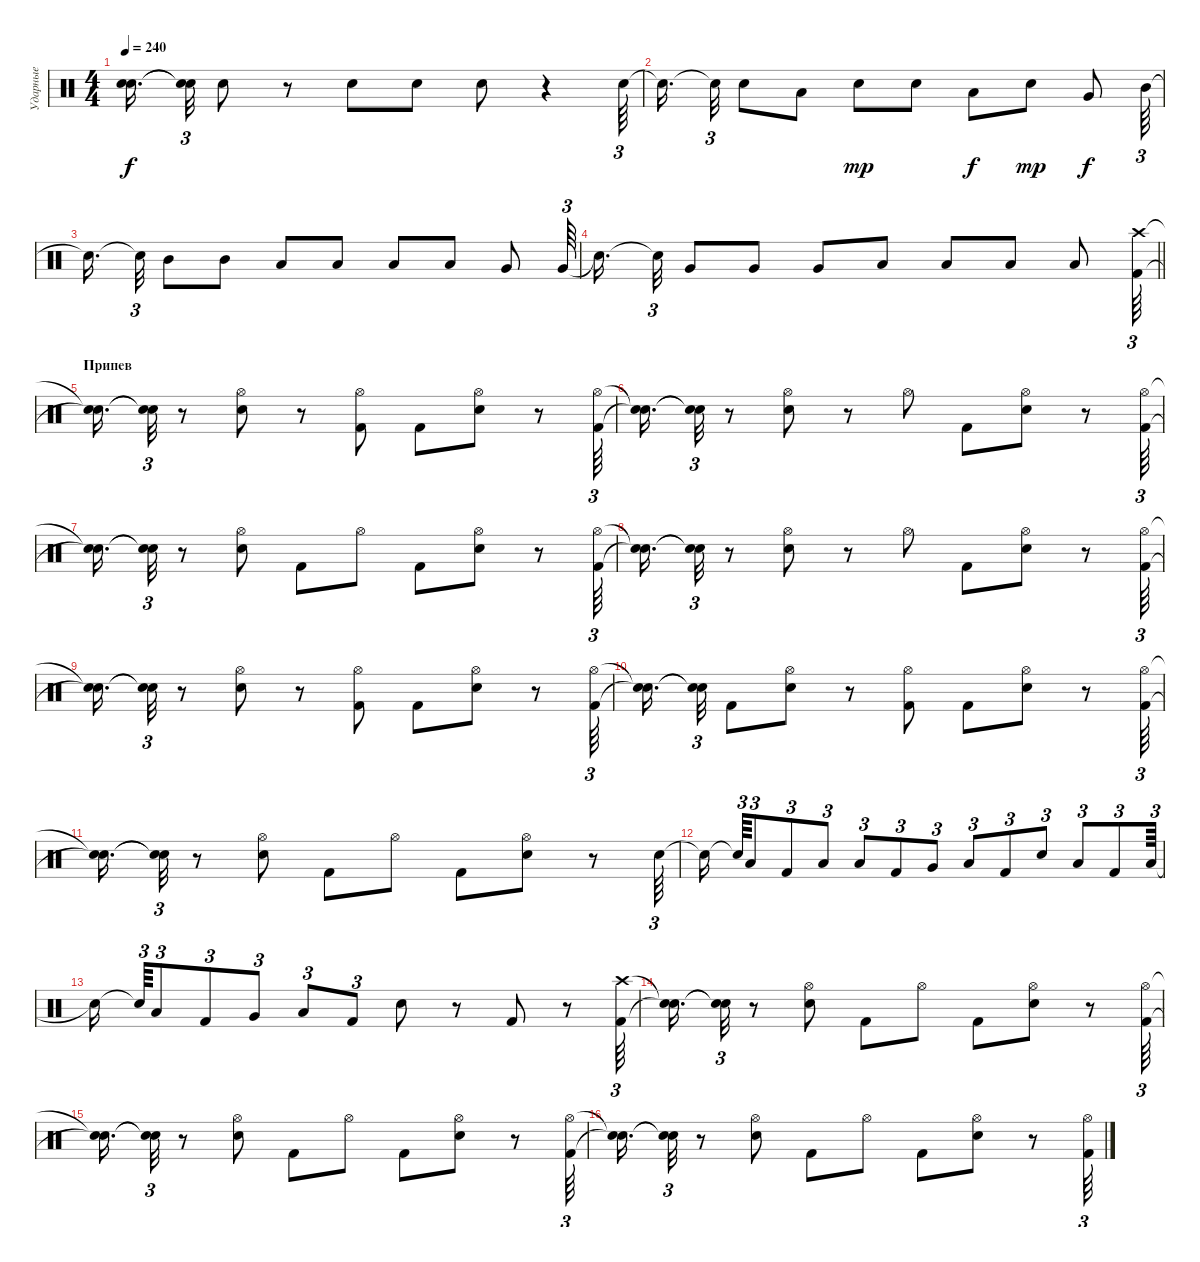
\track ("Ударные" "Ударные") {instrument percussion}
\staff {score}
\articulation defaults
\ts (4 4)
\tempo 240
\clef neutral
\ks c
("Snare (hit)"{t} "Snare (hit)"{t}).16{d dy f} ("Snare (hit)"{t} "Snare (hit)"{t}).32{tu (3 2)} "Snare (hit) 2".8 r.8 "Snare (hit) 2".8 "Snare (hit) 2".8 "Snare (hit) 2".8 r.4 "Snare (hit) 2".64{tu (3 2)} |
"Snare (hit)"{t}.16{d} "Snare (hit)"{t}.32{tu (3 2)} "Snare (hit) 2".8 "Low Tom (hit)".8 "Snare (hit) 2".8{dy mp} "Snare (hit) 2".8 "Low Tom (hit)".8{dy f} "Snare (hit) 2".8{dy mp} "Very Low Tom (hit)".8{dy f} "Mid Tom (hit)".64{tu (3 2)} |
"Snare (hit)"{t}.16{d} "Snare (hit)"{t}.32{tu (3 2)} "Mid Tom (hit)".8 "Mid Tom (hit)".8 "Low Tom (hit)".8 "Low Tom (hit)".8 "Low Tom (hit)".8 "Low Tom (hit)".8 "Very Low Tom (hit)".8 "Very Low Tom (hit)".64{tu (3 2)} |
\barLineRight lightlight "Snare (hit)"{t}.16{d} "Snare (hit)"{t}.32{tu (3 2)} "Very Low Tom (hit)".8 "Very Low Tom (hit)".8 "Very Low Tom (hit)".8 "Low Floor Tom (hit)".8 "Low Floor Tom (hit)".8 "Low Floor Tom (hit)".8 "Low Floor Tom (hit)".8
("Kick (hit) 2" "Crash high (hit)").64{tu (3 2)} |
\section ("" "Припев")
("Snare (hit)"{t} "Snare (hit)"{t}).16{d} ("Snare (hit)"{t} "Snare (hit)"{t}).32{tu (3 2)} r.8 ("Hi-Hat (open)" "Snare (hit) 2").8 r.8 ("Hi-Hat (open)" "Kick (hit) 2").8 "Kick (hit) 2".8 ("Snare (hit) 2" "Hi-Hat (open)").8 r.8 ("Hi-Hat (open)" "Kick (hit) 2").64{tu (3 2)} |
("Snare (hit)"{t} "Snare (hit)"{t}).16{d} ("Snare (hit)"{t} "Snare (hit)"{t}).32{tu (3 2)} r.8 ("Hi-Hat (open)" "Snare (hit) 2").8 r.8 "Hi-Hat (open)".8 "Kick (hit) 2".8 ("Hi-Hat (open)" "Snare (hit) 2").8 r.8 ("Kick (hit) 2" "Hi-Hat (open)").64{tu (3 2)} |
("Snare (hit)"{t} "Snare (hit)"{t}).16{d} ("Snare (hit)"{t} "Snare (hit)"{t}).32{tu (3 2)} r.8 ("Snare (hit) 2" "Hi-Hat (open)").8 "Kick (hit) 2".8 "Hi-Hat (open)".8 "Kick (hit) 2".8 ("Snare (hit) 2" "Hi-Hat (open)").8 r.8 ("Hi-Hat (open)" "Kick (hit) 2").64{tu (3 2)} |
("Snare (hit)"{t} "Snare (hit)"{t}).16{d} ("Snare (hit)"{t} "Snare (hit)"{t}).32{tu (3 2)} r.8 ("Hi-Hat (open)" "Snare (hit) 2").8 r.8 "Hi-Hat (open)".8 "Kick (hit) 2".8 ("Hi-Hat (open)" "Snare (hit) 2").8 r.8 ("Hi-Hat (open)" "Kick (hit) 2").64{tu (3 2)} |
("Snare (hit)"{t} "Snare (hit)"{t}).16{d} ("Snare (hit)"{t} "Snare (hit)"{t}).32{tu (3 2)} r.8 ("Hi-Hat (open)" "Snare (hit) 2").8 r.8 ("Kick (hit) 2" "Hi-Hat (open)").8 "Kick (hit) 2".8 ("Snare (hit) 2" "Hi-Hat (open)").8 r.8 ("Kick (hit) 2" "Hi-Hat (open)").64{tu (3 2)} |
("Snare (hit)"{t} "Snare (hit)"{t}).16{d} ("Snare (hit)"{t} "Snare (hit)"{t}).32{tu (3 2)} "Kick (hit) 2".8 ("Snare (hit) 2" "Hi-Hat (open)").8 r.8 ("Kick (hit) 2" "Hi-Hat (open)").8 "Kick (hit) 2".8 ("Snare (hit) 2" "Hi-Hat (open)").8 r.8 ("Kick (hit) 2" "Hi-Hat (open)").64{tu (3 2)} |
("Snare (hit)"{t} "Snare (hit)"{t}).16{d} ("Snare (hit)"{t} "Snare (hit)"{t}).32{tu (3 2)} r.8 ("Hi-Hat (open)" "Snare (hit) 2").8 "Kick (hit) 2".8 "Hi-Hat (open)".8 "Kick (hit) 2".8 ("Hi-Hat (open)" "Snare (hit) 2").8 r.8 "Snare (hit) 2".64{tu (3 2)} |
"Snare (hit)"{t}.16 "Snare (hit)"{t}.64{tu (3 2)} "Low Floor Tom (hit)".8{tu (3 2)} "Kick (hit) 2".8{tu (3 2)} "Low Tom (hit)".8{tu (3 2)} "Low Floor Tom (hit)".8{tu (3 2)} "Kick (hit) 2".8{tu (3 2)} "Very Low Tom (hit)".8{tu (3 2)} "Low Floor Tom (hit)".8{tu (3 2)} "Kick (hit) 2".8{tu (3 2)} "Snare (hit) 2".8{tu (3 2)} "Low Floor Tom (hit)".8{tu (3 2)} "Kick (hit) 2".8{tu (3 2)} "Low Tom (hit)".64{tu (3 2)} |
"Snare (hit)"{t}.16 "Snare (hit)"{t}.64{tu (3 2)} "Low Floor Tom (hit)".8{tu (3 2)} "Kick (hit) 2".8{tu (3 2)} "Very Low Tom (hit)".8{tu (3 2)} "Low Floor Tom (hit)".8{tu (3 2)} "Kick (hit) 2".8{tu (3 2)} "Snare (hit) 2".8 r.8 "Kick (hit) 2".8 r.8 ("Crash high (hit)" "Kick (hit) 2").64{tu (3 2)} |
("Snare (hit)"{t} "Snare (hit)"{t}).16{d} ("Snare (hit)"{t} "Snare (hit)"{t}).32{tu (3 2)} r.8 ("Hi-Hat (open)" "Snare (hit) 2").8 "Kick (hit) 2".8 "Hi-Hat (open)".8 "Kick (hit) 2".8 ("Hi-Hat (open)" "Snare (hit) 2").8 r.8 ("Kick (hit) 2" "Hi-Hat (open)").64{tu (3 2)} |
("Snare (hit)"{t} "Snare (hit)"{t}).16{d} ("Snare (hit)"{t} "Snare (hit)"{t}).32{tu (3 2)} r.8 ("Hi-Hat (open)" "Snare (hit) 2").8 "Kick (hit) 2".8 "Hi-Hat (open)".8 "Kick (hit) 2".8 ("Hi-Hat (open)" "Snare (hit) 2").8 r.8 ("Hi-Hat (open)" "Kick (hit) 2").64{tu (3 2)} |
("Snare (hit)"{t} "Snare (hit)"{t}).16{d} ("Snare (hit)"{t} "Snare (hit)"{t}).32{tu (3 2)} r.8 ("Hi-Hat (open)" "Snare (hit) 2").8 "Kick (hit) 2".8 "Hi-Hat (open)".8 "Kick (hit) 2".8 ("Snare (hit) 2" "Hi-Hat (open)").8 r.8 ("Kick (hit) 2" "Hi-Hat (open)").64{tu (3 2)}
